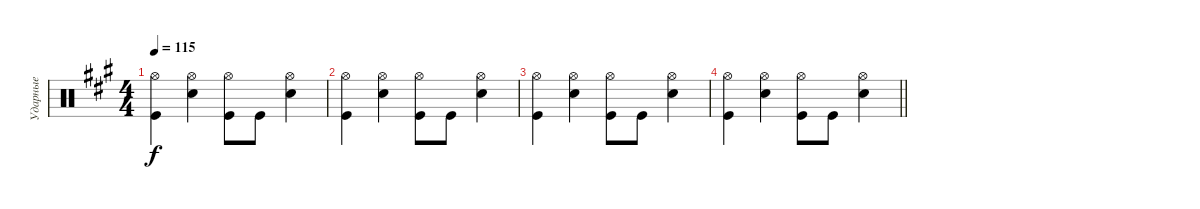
\track ("Ударные" "Ударные") {instrument percussion}
\staff {score}
\articulation defaults
\ts (4 4)
\tempo 115
\clef neutral
\ks a
("Hi-Hat (open)" "Kick (hit)").4{dy f} ("Hi-Hat (open)" "Snare (hit) 2").4 ("Hi-Hat (open)" "Kick (hit)").8 "Kick (hit)".8 ("Hi-Hat (open)" "Snare (hit) 2").4 |
("Hi-Hat (open)" "Kick (hit)").4 ("Hi-Hat (open)" "Snare (hit) 2").4 ("Hi-Hat (open)" "Kick (hit)").8 "Kick (hit)".8 ("Hi-Hat (open)" "Snare (hit) 2").4 |
("Hi-Hat (open)" "Kick (hit)").4 ("Hi-Hat (open)" "Snare (hit) 2").4 ("Hi-Hat (open)" "Kick (hit)").8 "Kick (hit)".8 ("Hi-Hat (open)" "Snare (hit) 2").4 |
\barLineRight lightlight
("Hi-Hat (open)" "Kick (hit)").4 ("Hi-Hat (open)" "Snare (hit) 2").4 ("Hi-Hat (open)" "Kick (hit)").8 "Kick (hit)".8 ("Hi-Hat (open)" "Snare (hit) 2").4
